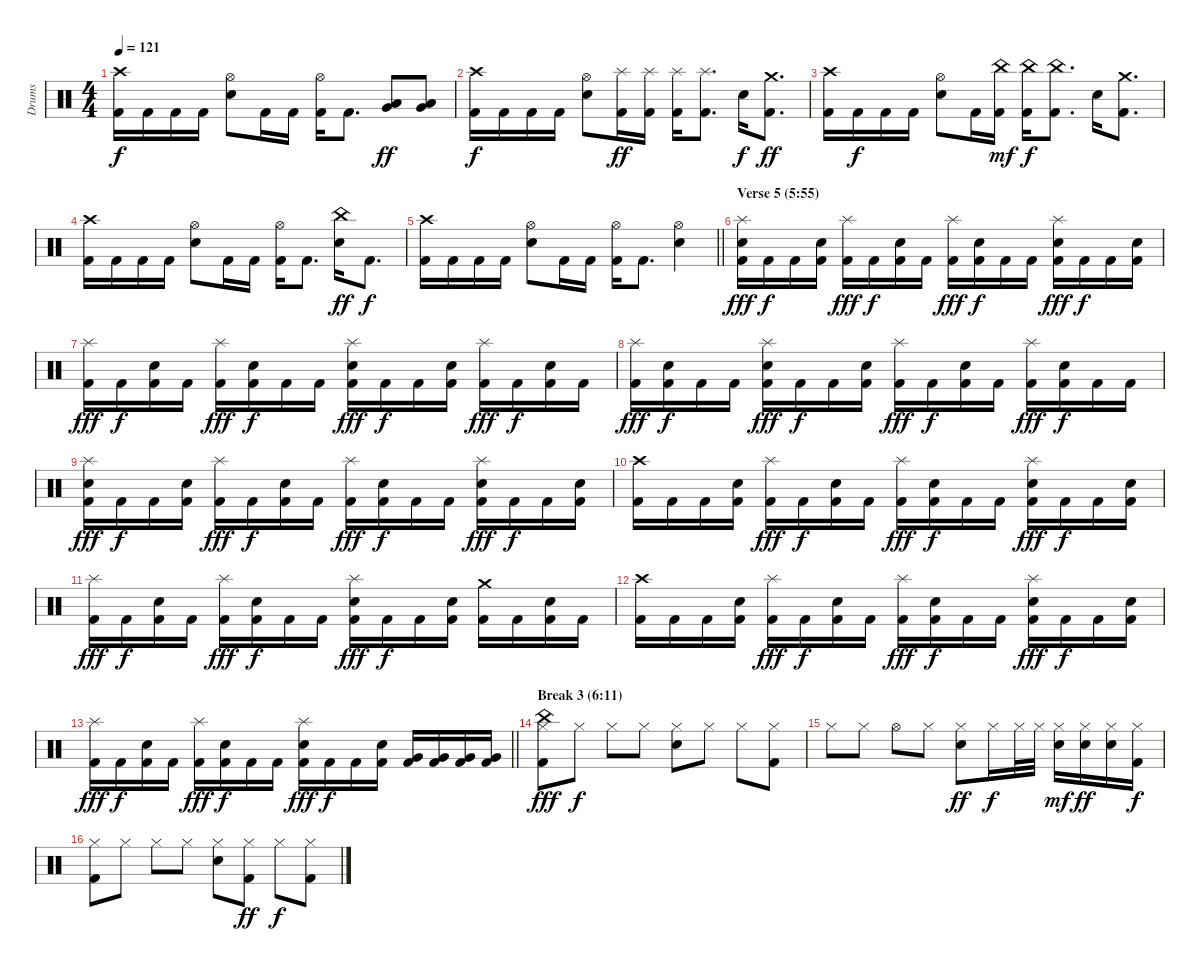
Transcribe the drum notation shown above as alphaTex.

\track ("Drums" "Drums") {instrument percussion}
\staff {score}
\articulation defaults
\ts (4 4)
\tempo 121
\clef neutral
\ks c
("Crash high (hit)" "Kick (hit) 2").16{dy f} "Kick (hit) 2".16 "Kick (hit) 2".16 "Kick (hit) 2".16 ("Hi-Hat (open)" "Electric Snare (hit)").8 "Kick (hit) 2".16 "Kick (hit) 2".16 ("Hi-Hat (open)" "Kick (hit) 2").16 "Kick (hit) 2".8{d} ("Very Low Tom (hit)" "Low Floor Tom (hit)").8{dy ff} ("Very Low Tom (hit)" "Low Floor Tom (hit)").8 |
("Crash high (hit)" "Kick (hit) 2").16{dy f} "Kick (hit) 2".16 "Kick (hit) 2".16 "Kick (hit) 2".16 ("Hi-Hat (open)" "Electric Snare (hit)").8 ("Splash (hit)" "Kick (hit) 2").16{dy ff} ("Splash (hit)" "Kick (hit) 2").16 ("Splash (hit)" "Kick (hit) 2").16 ("Splash (hit)" "Kick (hit) 2").8{d} "Electric Snare (hit)".16{dy f} ("Crash medium (hit)" "Kick (hit) 2").8{d dy ff} |
("Crash high (hit)" "Kick (hit) 2").16 "Kick (hit) 2".16{dy f} "Kick (hit) 2".16 "Kick (hit) 2".16 ("Hi-Hat (open)" "Electric Snare (hit)").8 "Kick (hit) 2".16 ("China (hit)" "Kick (hit) 2").16{dy mf} ("China (hit)" "Kick (hit) 2").16{dy f} ("China (hit)" "Kick (hit) 2").8{d} "Electric Snare (hit)".16 ("Crash medium (hit)" "Kick (hit) 2").8{d} |
("Crash high (hit)" "Kick (hit) 2").16 "Kick (hit) 2".16 "Kick (hit) 2".16 "Kick (hit) 2".16 ("Hi-Hat (open)" "Electric Snare (hit)").8 "Kick (hit) 2".16 "Kick (hit) 2".16 ("Hi-Hat (open)" "Kick (hit) 2").16 "Kick (hit) 2".8{d} ("China (hit)" "Electric Snare (hit)").16{dy ff} "Kick (hit) 2".8{d dy f} |
\barLineRight lightlight
("Crash high (hit)" "Kick (hit) 2").16 "Kick (hit) 2".16 "Kick (hit) 2".16 "Kick (hit) 2".16 ("Hi-Hat (open)" "Electric Snare (hit)").8 "Kick (hit) 2".16 "Kick (hit) 2".16 ("Hi-Hat (open)" "Kick (hit) 2").16 "Kick (hit) 2".8{d} ("Hi-Hat (open)" "Electric Snare (hit)").4 |
\section ("" "Verse 5 (5:55)")
("Splash (hit)" "Electric Snare (hit)" "Kick (hit) 2").16{dy fff} "Kick (hit) 2".16{dy f} "Kick (hit) 2".16 ("Electric Snare (hit)" "Kick (hit) 2").16 ("Splash (hit)" "Kick (hit) 2").16{dy fff} "Kick (hit) 2".16{dy f} ("Electric Snare (hit)" "Kick (hit) 2").16 "Kick (hit) 2".16 ("Splash (hit)" "Kick (hit) 2").16{dy fff} ("Electric Snare (hit)" "Kick (hit) 2").16{dy f} "Kick (hit) 2".16 "Kick (hit) 2".16 ("Splash (hit)" "Electric Snare (hit)" "Kick (hit) 2").16{dy fff} "Kick (hit) 2".16{dy f} "Kick (hit) 2".16 ("Electric Snare (hit)" "Kick (hit) 2").16 |
("Splash (hit)" "Kick (hit) 2").16{dy fff} "Kick (hit) 2".16{dy f} ("Electric Snare (hit)" "Kick (hit) 2").16 "Kick (hit) 2".16 ("Splash (hit)" "Kick (hit) 2").16{dy fff} ("Electric Snare (hit)" "Kick (hit) 2").16{dy f} "Kick (hit) 2".16 "Kick (hit) 2".16 ("Splash (hit)" "Electric Snare (hit)" "Kick (hit) 2").16{dy fff} "Kick (hit) 2".16{dy f} "Kick (hit) 2".16 ("Electric Snare (hit)" "Kick (hit) 2").16 ("Splash (hit)" "Kick (hit) 2").16{dy fff} "Kick (hit) 2".16{dy f} ("Electric Snare (hit)" "Kick (hit) 2").16 "Kick (hit) 2".16 |
("Splash (hit)" "Kick (hit) 2").16{dy fff} ("Electric Snare (hit)" "Kick (hit) 2").16{dy f} "Kick (hit) 2".16 "Kick (hit) 2".16 ("Splash (hit)" "Electric Snare (hit)" "Kick (hit) 2").16{dy fff} "Kick (hit) 2".16{dy f} "Kick (hit) 2".16 ("Electric Snare (hit)" "Kick (hit) 2").16 ("Splash (hit)" "Kick (hit) 2").16{dy fff} "Kick (hit) 2".16{dy f} ("Electric Snare (hit)" "Kick (hit) 2").16 "Kick (hit) 2".16 ("Splash (hit)" "Kick (hit) 2").16{dy fff} ("Electric Snare (hit)" "Kick (hit) 2").16{dy f} "Kick (hit) 2".16 "Kick (hit) 2".16 |
("Splash (hit)" "Electric Snare (hit)" "Kick (hit) 2").16{dy fff} "Kick (hit) 2".16{dy f} "Kick (hit) 2".16 ("Electric Snare (hit)" "Kick (hit) 2").16 ("Splash (hit)" "Kick (hit) 2").16{dy fff} "Kick (hit) 2".16{dy f} ("Electric Snare (hit)" "Kick (hit) 2").16 "Kick (hit) 2".16 ("Splash (hit)" "Kick (hit) 2").16{dy fff} ("Electric Snare (hit)" "Kick (hit) 2").16{dy f} "Kick (hit) 2".16 "Kick (hit) 2".16 ("Splash (hit)" "Electric Snare (hit)" "Kick (hit) 2").16{dy fff} "Kick (hit) 2".16{dy f} "Kick (hit) 2".16 ("Electric Snare (hit)" "Kick (hit) 2").16 |
("Crash high (hit)" "Kick (hit) 2").16 "Kick (hit) 2".16 "Kick (hit) 2".16 ("Electric Snare (hit)" "Kick (hit) 2").16 ("Splash (hit)" "Kick (hit) 2").16{dy fff} "Kick (hit) 2".16{dy f} ("Electric Snare (hit)" "Kick (hit) 2").16 "Kick (hit) 2".16 ("Splash (hit)" "Kick (hit) 2").16{dy fff} ("Electric Snare (hit)" "Kick (hit) 2").16{dy f} "Kick (hit) 2".16 "Kick (hit) 2".16 ("Splash (hit)" "Electric Snare (hit)" "Kick (hit) 2").16{dy fff} "Kick (hit) 2".16{dy f} "Kick (hit) 2".16 ("Electric Snare (hit)" "Kick (hit) 2").16 |
("Splash (hit)" "Kick (hit) 2").16{dy fff} "Kick (hit) 2".16{dy f} ("Electric Snare (hit)" "Kick (hit) 2").16 "Kick (hit) 2".16 ("Splash (hit)" "Kick (hit) 2").16{dy fff} ("Electric Snare (hit)" "Kick (hit) 2").16{dy f} "Kick (hit) 2".16 "Kick (hit) 2".16 ("Splash (hit)" "Electric Snare (hit)" "Kick (hit) 2").16{dy fff} "Kick (hit) 2".16{dy f} "Kick (hit) 2".16 ("Electric Snare (hit)" "Kick (hit) 2").16 ("Crash medium (hit)" "Kick (hit) 2").16 "Kick (hit) 2".16 ("Electric Snare (hit)" "Kick (hit) 2").16 "Kick (hit) 2".16 |
("Crash high (hit)" "Kick (hit) 2").16 "Kick (hit) 2".16 "Kick (hit) 2".16 ("Electric Snare (hit)" "Kick (hit) 2").16 ("Splash (hit)" "Kick (hit) 2").16{dy fff} "Kick (hit) 2".16{dy f} ("Electric Snare (hit)" "Kick (hit) 2").16 "Kick (hit) 2".16 ("Splash (hit)" "Kick (hit) 2").16{dy fff} ("Electric Snare (hit)" "Kick (hit) 2").16{dy f} "Kick (hit) 2".16 "Kick (hit) 2".16 ("Splash (hit)" "Electric Snare (hit)" "Kick (hit) 2").16{dy fff} "Kick (hit) 2".16{dy f} "Kick (hit) 2".16 ("Electric Snare (hit)" "Kick (hit) 2").16 |
\barLineRight lightlight
("Splash (hit)" "Kick (hit) 2").16{dy fff} "Kick (hit) 2".16{dy f} ("Electric Snare (hit)" "Kick (hit) 2").16 "Kick (hit) 2".16 ("Splash (hit)" "Kick (hit) 2").16{dy fff} ("Electric Snare (hit)" "Kick (hit) 2").16{dy f} "Kick (hit) 2".16 "Kick (hit) 2".16 ("Splash (hit)" "Electric Snare (hit)" "Kick (hit) 2").16{dy fff} "Kick (hit) 2".16{dy f} "Kick (hit) 2".16 ("Electric Snare (hit)" "Kick (hit) 2").16 ("Very Low Tom (hit)" "Kick (hit) 2").16 ("Very Low Tom (hit)" "Kick (hit) 2").16 ("Very Low Tom (hit)" "Kick (hit) 2").16 ("Very Low Tom (hit)" "Kick (hit) 2").16 |
\section ("" "Break 3 (6:11)")
("China (hit)" "Hi-Hat (closed)" "Kick (hit) 2").8{dy fff volume 8} "Hi-Hat (closed)".8{dy f} "Hi-Hat (closed)".8 "Hi-Hat (closed)".8 ("Hi-Hat (closed)" "Snare (hit) 2").8 "Hi-Hat (closed)".8 "Hi-Hat (closed)".8 ("Hi-Hat (closed)" "Kick (hit) 2").8 |
"Hi-Hat (closed)".8 "Hi-Hat (closed)".8 "Hi-Hat (open)".8 "Hi-Hat (closed)".8 ("Hi-Hat (closed)" "Snare (hit) 2").8{dy ff} "Hi-Hat (closed)".16{dy f} "Hi-Hat (closed)".32 "Hi-Hat (closed)".32 ("Hi-Hat (closed)" "Snare (hit) 2").16{dy mf} ("Hi-Hat (closed)" "Snare (hit) 2").16{dy ff} ("Hi-Hat (closed)" "Snare (hit) 2").16 ("Hi-Hat (closed)" "Kick (hit) 2").16{dy f} |
("Hi-Hat (closed)" "Kick (hit) 2").8 "Hi-Hat (closed)".8 "Hi-Hat (closed)".8 "Hi-Hat (closed)".8 ("Hi-Hat (closed)" "Snare (hit) 2").8 ("Hi-Hat (closed)" "Kick (hit) 2").8{dy ff} "Hi-Hat (closed)".8{dy f} ("Hi-Hat (closed)" "Kick (hit) 2").8
